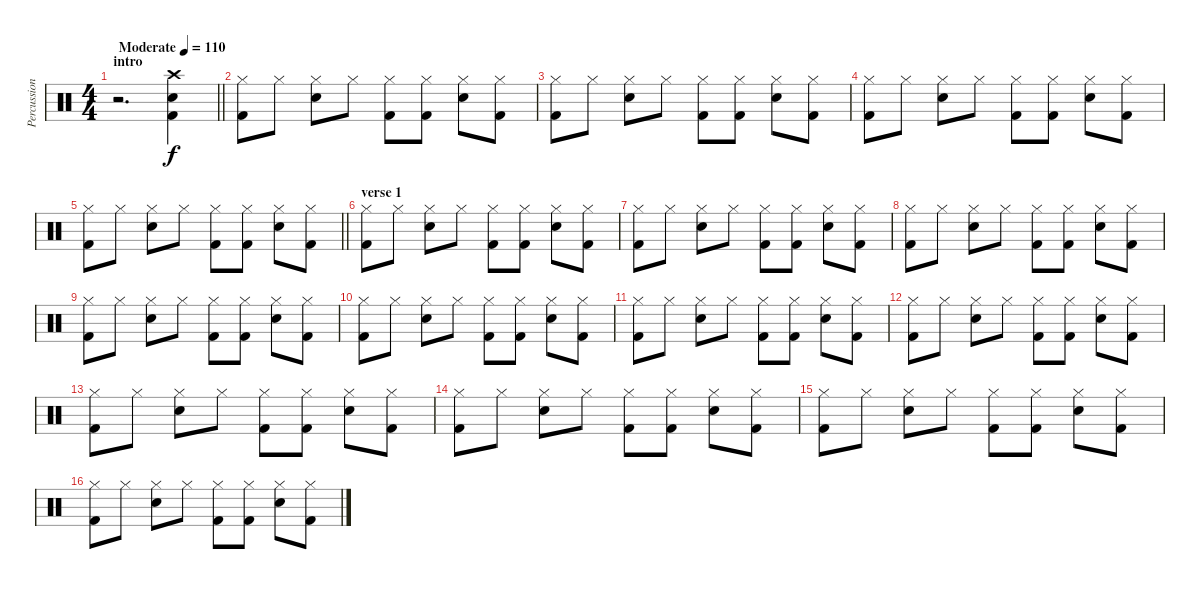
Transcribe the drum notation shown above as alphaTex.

\track ("Percussions" "Percussion") {instrument percussion}
\staff {score}
\articulation defaults
\ts (4 4)
\section ("" "intro")
\tempo (110 "Moderate")
\clef neutral
\barLineRight lightlight
\ks c
r.2{d dy f} ("Crash high (hit)" "Electric Snare (hit)" "Kick (hit) 2").4 |
("Hi-Hat (closed)" "Kick (hit) 2").8 "Hi-Hat (closed)".8 ("Hi-Hat (closed)" "Electric Snare (hit)").8 "Hi-Hat (closed)".8 ("Hi-Hat (closed)" "Kick (hit) 2").8 ("Hi-Hat (closed)" "Kick (hit) 2").8 ("Hi-Hat (closed)" "Electric Snare (hit)").8 ("Hi-Hat (closed)" "Kick (hit) 2").8 |
("Hi-Hat (closed)" "Kick (hit) 2").8 "Hi-Hat (closed)".8 ("Hi-Hat (closed)" "Electric Snare (hit)").8 "Hi-Hat (closed)".8 ("Hi-Hat (closed)" "Kick (hit) 2").8 ("Hi-Hat (closed)" "Kick (hit) 2").8 ("Hi-Hat (closed)" "Electric Snare (hit)").8 ("Hi-Hat (closed)" "Kick (hit) 2").8 |
("Hi-Hat (closed)" "Kick (hit) 2").8 "Hi-Hat (closed)".8 ("Hi-Hat (closed)" "Electric Snare (hit)").8 "Hi-Hat (closed)".8 ("Hi-Hat (closed)" "Kick (hit) 2").8 ("Hi-Hat (closed)" "Kick (hit) 2").8 ("Hi-Hat (closed)" "Electric Snare (hit)").8 ("Hi-Hat (closed)" "Kick (hit) 2").8 |
\barLineRight lightlight
("Hi-Hat (closed)" "Kick (hit) 2").8 "Hi-Hat (closed)".8 ("Hi-Hat (closed)" "Electric Snare (hit)").8 "Hi-Hat (closed)".8 ("Hi-Hat (closed)" "Kick (hit) 2").8 ("Hi-Hat (closed)" "Kick (hit) 2").8 ("Hi-Hat (closed)" "Electric Snare (hit)").8 ("Hi-Hat (closed)" "Kick (hit) 2").8 |
\section ("" "verse 1")
("Hi-Hat (closed)" "Kick (hit) 2").8 "Hi-Hat (closed)".8 ("Hi-Hat (closed)" "Electric Snare (hit)").8 "Hi-Hat (closed)".8 ("Hi-Hat (closed)" "Kick (hit) 2").8 ("Hi-Hat (closed)" "Kick (hit) 2").8 ("Hi-Hat (closed)" "Electric Snare (hit)").8 ("Hi-Hat (closed)" "Kick (hit) 2").8 |
("Hi-Hat (closed)" "Kick (hit) 2").8 "Hi-Hat (closed)".8 ("Hi-Hat (closed)" "Electric Snare (hit)").8 "Hi-Hat (closed)".8 ("Hi-Hat (closed)" "Kick (hit) 2").8 ("Hi-Hat (closed)" "Kick (hit) 2").8 ("Hi-Hat (closed)" "Electric Snare (hit)").8 ("Hi-Hat (closed)" "Kick (hit) 2").8 |
("Hi-Hat (closed)" "Kick (hit) 2").8 "Hi-Hat (closed)".8 ("Hi-Hat (closed)" "Electric Snare (hit)").8 "Hi-Hat (closed)".8 ("Hi-Hat (closed)" "Kick (hit) 2").8 ("Hi-Hat (closed)" "Kick (hit) 2").8 ("Hi-Hat (closed)" "Electric Snare (hit)").8 ("Hi-Hat (closed)" "Kick (hit) 2").8 |
("Hi-Hat (closed)" "Kick (hit) 2").8 "Hi-Hat (closed)".8 ("Hi-Hat (closed)" "Electric Snare (hit)").8 "Hi-Hat (closed)".8 ("Hi-Hat (closed)" "Kick (hit) 2").8 ("Hi-Hat (closed)" "Kick (hit) 2").8 ("Hi-Hat (closed)" "Electric Snare (hit)").8 ("Hi-Hat (closed)" "Kick (hit) 2").8 |
("Hi-Hat (closed)" "Kick (hit) 2").8 "Hi-Hat (closed)".8 ("Hi-Hat (closed)" "Electric Snare (hit)").8 "Hi-Hat (closed)".8 ("Hi-Hat (closed)" "Kick (hit) 2").8 ("Hi-Hat (closed)" "Kick (hit) 2").8 ("Hi-Hat (closed)" "Electric Snare (hit)").8 ("Hi-Hat (closed)" "Kick (hit) 2").8 |
("Hi-Hat (closed)" "Kick (hit) 2").8 "Hi-Hat (closed)".8 ("Hi-Hat (closed)" "Electric Snare (hit)").8 "Hi-Hat (closed)".8 ("Hi-Hat (closed)" "Kick (hit) 2").8 ("Hi-Hat (closed)" "Kick (hit) 2").8 ("Hi-Hat (closed)" "Electric Snare (hit)").8 ("Hi-Hat (closed)" "Kick (hit) 2").8 |
("Hi-Hat (closed)" "Kick (hit) 2").8 "Hi-Hat (closed)".8 ("Hi-Hat (closed)" "Electric Snare (hit)").8 "Hi-Hat (closed)".8 ("Hi-Hat (closed)" "Kick (hit) 2").8 ("Hi-Hat (closed)" "Kick (hit) 2").8 ("Hi-Hat (closed)" "Electric Snare (hit)").8 ("Hi-Hat (closed)" "Kick (hit) 2").8 |
("Hi-Hat (closed)" "Kick (hit) 2").8 "Hi-Hat (closed)".8 ("Hi-Hat (closed)" "Electric Snare (hit)").8 "Hi-Hat (closed)".8 ("Hi-Hat (closed)" "Kick (hit) 2").8 ("Hi-Hat (closed)" "Kick (hit) 2").8 ("Hi-Hat (closed)" "Electric Snare (hit)").8 ("Hi-Hat (closed)" "Kick (hit) 2").8 |
("Hi-Hat (closed)" "Kick (hit) 2").8 "Hi-Hat (closed)".8 ("Hi-Hat (closed)" "Electric Snare (hit)").8 "Hi-Hat (closed)".8 ("Hi-Hat (closed)" "Kick (hit) 2").8 ("Hi-Hat (closed)" "Kick (hit) 2").8 ("Hi-Hat (closed)" "Electric Snare (hit)").8 ("Hi-Hat (closed)" "Kick (hit) 2").8 |
("Hi-Hat (closed)" "Kick (hit) 2").8 "Hi-Hat (closed)".8 ("Hi-Hat (closed)" "Electric Snare (hit)").8 "Hi-Hat (closed)".8 ("Hi-Hat (closed)" "Kick (hit) 2").8 ("Hi-Hat (closed)" "Kick (hit) 2").8 ("Hi-Hat (closed)" "Electric Snare (hit)").8 ("Hi-Hat (closed)" "Kick (hit) 2").8 |
("Hi-Hat (closed)" "Kick (hit) 2").8 "Hi-Hat (closed)".8 ("Hi-Hat (closed)" "Electric Snare (hit)").8 "Hi-Hat (closed)".8 ("Hi-Hat (closed)" "Kick (hit) 2").8 ("Hi-Hat (closed)" "Kick (hit) 2").8 ("Hi-Hat (closed)" "Electric Snare (hit)").8 ("Hi-Hat (closed)" "Kick (hit) 2").8
